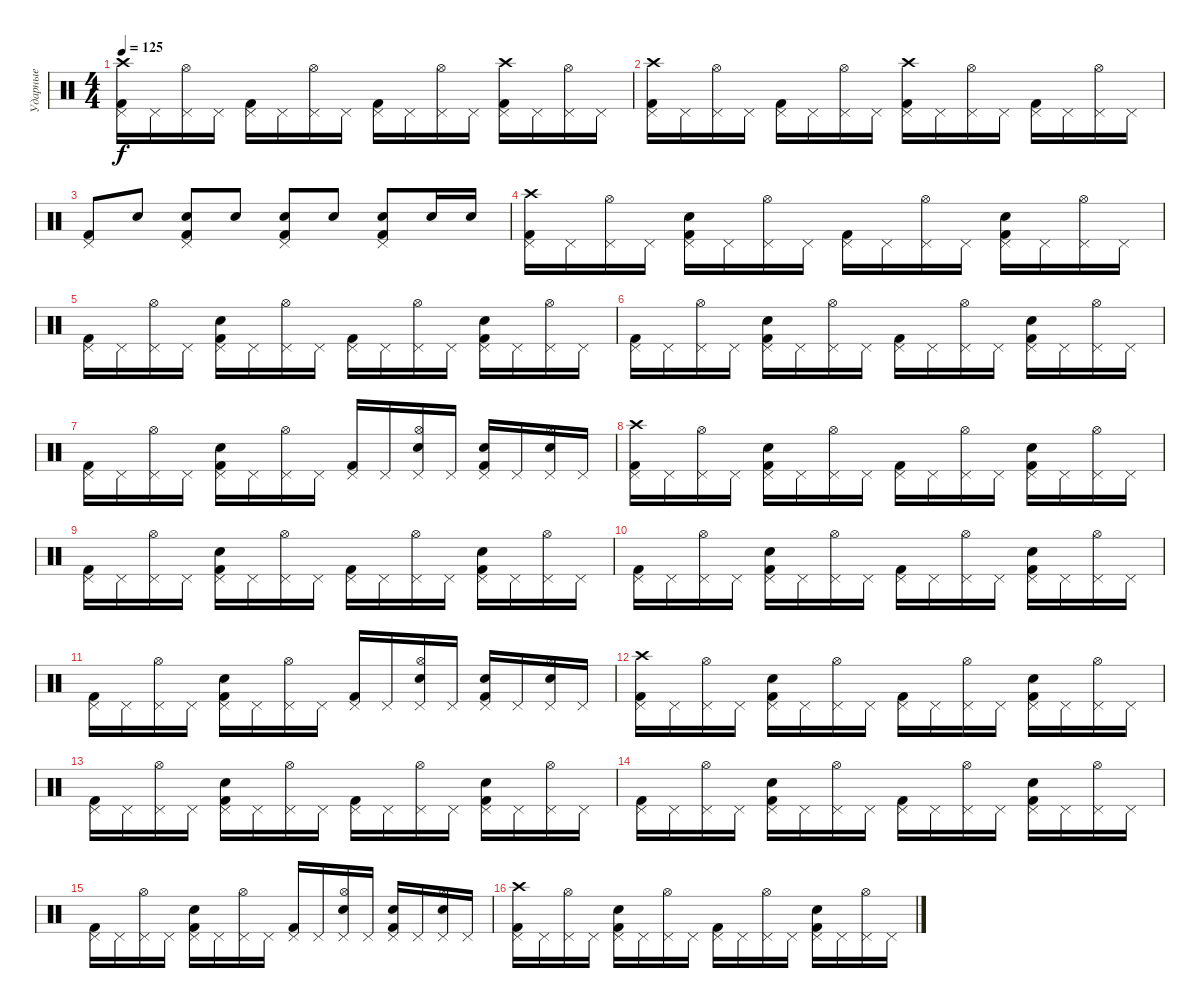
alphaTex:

\track ("Ударные" "Ударные") {instrument percussion}
\staff {score}
\articulation defaults
\ts (4 4)
\tempo 125
\clef neutral
\ks c
("Kick (hit) 2" "Pedal Hi-Hat (hit)" "Crash high (hit)").16{dy f} "Pedal Hi-Hat (hit)".16 ("Pedal Hi-Hat (hit)" "Hi-Hat (open)").16 "Pedal Hi-Hat (hit)".16 ("Kick (hit) 2" "Pedal Hi-Hat (hit)").16 "Pedal Hi-Hat (hit)".16 ("Pedal Hi-Hat (hit)" "Hi-Hat (open)").16 "Pedal Hi-Hat (hit)".16 ("Kick (hit) 2" "Pedal Hi-Hat (hit)").16 "Pedal Hi-Hat (hit)".16 ("Pedal Hi-Hat (hit)" "Hi-Hat (open)").16 "Pedal Hi-Hat (hit)".16 ("Kick (hit) 2" "Pedal Hi-Hat (hit)" "Crash high (hit)").16 "Pedal Hi-Hat (hit)".16 ("Pedal Hi-Hat (hit)" "Hi-Hat (open)").16 "Pedal Hi-Hat (hit)".16 |
("Kick (hit) 2" "Pedal Hi-Hat (hit)" "Crash high (hit)").16 "Pedal Hi-Hat (hit)".16 ("Pedal Hi-Hat (hit)" "Hi-Hat (open)").16 "Pedal Hi-Hat (hit)".16 ("Kick (hit) 2" "Pedal Hi-Hat (hit)").16 "Pedal Hi-Hat (hit)".16 ("Pedal Hi-Hat (hit)" "Hi-Hat (open)").16 "Pedal Hi-Hat (hit)".16 ("Kick (hit) 2" "Pedal Hi-Hat (hit)" "Crash high (hit)").16 "Pedal Hi-Hat (hit)".16 ("Pedal Hi-Hat (hit)" "Hi-Hat (open)").16 "Pedal Hi-Hat (hit)".16 ("Kick (hit) 2" "Pedal Hi-Hat (hit)").16 "Pedal Hi-Hat (hit)".16 ("Pedal Hi-Hat (hit)" "Hi-Hat (open)").16 "Pedal Hi-Hat (hit)".16 |
("Kick (hit) 2" "Pedal Hi-Hat (hit)").8 "Snare (hit) 2".8 ("Kick (hit) 2" "Pedal Hi-Hat (hit)" "Snare (hit) 2").8 "Snare (hit) 2".8 ("Kick (hit) 2" "Pedal Hi-Hat (hit)" "Snare (hit) 2").8 "Snare (hit) 2".8 ("Kick (hit) 2" "Pedal Hi-Hat (hit)" "Snare (hit) 2").8 "Snare (hit) 2".16 "Snare (hit) 2".16 |
("Kick (hit) 2" "Pedal Hi-Hat (hit)" "Crash high (hit)").16 "Pedal Hi-Hat (hit)".16 ("Pedal Hi-Hat (hit)" "Hi-Hat (open)").16 "Pedal Hi-Hat (hit)".16 ("Kick (hit) 2" "Pedal Hi-Hat (hit)" "Snare (hit) 2").16 "Pedal Hi-Hat (hit)".16 ("Pedal Hi-Hat (hit)" "Hi-Hat (open)").16 "Pedal Hi-Hat (hit)".16 ("Kick (hit) 2" "Pedal Hi-Hat (hit)").16 "Pedal Hi-Hat (hit)".16 ("Pedal Hi-Hat (hit)" "Hi-Hat (open)").16 "Pedal Hi-Hat (hit)".16 ("Kick (hit) 2" "Pedal Hi-Hat (hit)" "Snare (hit) 2").16 "Pedal Hi-Hat (hit)".16 ("Pedal Hi-Hat (hit)" "Hi-Hat (open)").16 "Pedal Hi-Hat (hit)".16 |
("Kick (hit) 2" "Pedal Hi-Hat (hit)").16 "Pedal Hi-Hat (hit)".16 ("Pedal Hi-Hat (hit)" "Hi-Hat (open)").16 "Pedal Hi-Hat (hit)".16 ("Kick (hit) 2" "Pedal Hi-Hat (hit)" "Snare (hit) 2").16 "Pedal Hi-Hat (hit)".16 ("Pedal Hi-Hat (hit)" "Hi-Hat (open)").16 "Pedal Hi-Hat (hit)".16 ("Kick (hit) 2" "Pedal Hi-Hat (hit)").16 "Pedal Hi-Hat (hit)".16 ("Pedal Hi-Hat (hit)" "Hi-Hat (open)").16 "Pedal Hi-Hat (hit)".16 ("Kick (hit) 2" "Pedal Hi-Hat (hit)" "Snare (hit) 2").16 "Pedal Hi-Hat (hit)".16 ("Pedal Hi-Hat (hit)" "Hi-Hat (open)").16 "Pedal Hi-Hat (hit)".16 |
("Kick (hit) 2" "Pedal Hi-Hat (hit)").16 "Pedal Hi-Hat (hit)".16 ("Pedal Hi-Hat (hit)" "Hi-Hat (open)").16 "Pedal Hi-Hat (hit)".16 ("Kick (hit) 2" "Pedal Hi-Hat (hit)" "Snare (hit) 2").16 "Pedal Hi-Hat (hit)".16 ("Pedal Hi-Hat (hit)" "Hi-Hat (open)").16 "Pedal Hi-Hat (hit)".16 ("Kick (hit) 2" "Pedal Hi-Hat (hit)").16 "Pedal Hi-Hat (hit)".16 ("Pedal Hi-Hat (hit)" "Hi-Hat (open)").16 "Pedal Hi-Hat (hit)".16 ("Kick (hit) 2" "Pedal Hi-Hat (hit)" "Snare (hit) 2").16 "Pedal Hi-Hat (hit)".16 ("Pedal Hi-Hat (hit)" "Hi-Hat (open)").16 "Pedal Hi-Hat (hit)".16 |
("Kick (hit) 2" "Pedal Hi-Hat (hit)").16 "Pedal Hi-Hat (hit)".16 ("Pedal Hi-Hat (hit)" "Hi-Hat (open)").16 "Pedal Hi-Hat (hit)".16 ("Kick (hit) 2" "Pedal Hi-Hat (hit)" "Snare (hit) 2").16 "Pedal Hi-Hat (hit)".16 ("Pedal Hi-Hat (hit)" "Hi-Hat (open)").16 "Pedal Hi-Hat (hit)".16 ("Kick (hit) 2" "Pedal Hi-Hat (hit)").16 "Pedal Hi-Hat (hit)".16 ("Pedal Hi-Hat (hit)" "Snare (hit) 2" "Hi-Hat (open)").16 "Pedal Hi-Hat (hit)".16 ("Kick (hit) 2" "Pedal Hi-Hat (hit)" "Snare (hit) 2").16 "Pedal Hi-Hat (hit)".16 ("Pedal Hi-Hat (hit)" "Snare (hit) 2" "Hi-Hat (open)").16 "Pedal Hi-Hat (hit)".16 |
("Kick (hit) 2" "Pedal Hi-Hat (hit)" "Crash high (hit)").16 "Pedal Hi-Hat (hit)".16 ("Pedal Hi-Hat (hit)" "Hi-Hat (open)").16 "Pedal Hi-Hat (hit)".16 ("Kick (hit) 2" "Pedal Hi-Hat (hit)" "Snare (hit) 2").16 "Pedal Hi-Hat (hit)".16 ("Pedal Hi-Hat (hit)" "Hi-Hat (open)").16 "Pedal Hi-Hat (hit)".16 ("Kick (hit) 2" "Pedal Hi-Hat (hit)").16 "Pedal Hi-Hat (hit)".16 ("Pedal Hi-Hat (hit)" "Hi-Hat (open)").16 "Pedal Hi-Hat (hit)".16 ("Kick (hit) 2" "Pedal Hi-Hat (hit)" "Snare (hit) 2").16 "Pedal Hi-Hat (hit)".16 ("Pedal Hi-Hat (hit)" "Hi-Hat (open)").16 "Pedal Hi-Hat (hit)".16 |
("Kick (hit) 2" "Pedal Hi-Hat (hit)").16 "Pedal Hi-Hat (hit)".16 ("Pedal Hi-Hat (hit)" "Hi-Hat (open)").16 "Pedal Hi-Hat (hit)".16 ("Kick (hit) 2" "Pedal Hi-Hat (hit)" "Snare (hit) 2").16 "Pedal Hi-Hat (hit)".16 ("Pedal Hi-Hat (hit)" "Hi-Hat (open)").16 "Pedal Hi-Hat (hit)".16 ("Kick (hit) 2" "Pedal Hi-Hat (hit)").16 "Pedal Hi-Hat (hit)".16 ("Pedal Hi-Hat (hit)" "Hi-Hat (open)").16 "Pedal Hi-Hat (hit)".16 ("Kick (hit) 2" "Pedal Hi-Hat (hit)" "Snare (hit) 2").16 "Pedal Hi-Hat (hit)".16 ("Pedal Hi-Hat (hit)" "Hi-Hat (open)").16 "Pedal Hi-Hat (hit)".16 |
("Kick (hit) 2" "Pedal Hi-Hat (hit)").16 "Pedal Hi-Hat (hit)".16 ("Pedal Hi-Hat (hit)" "Hi-Hat (open)").16 "Pedal Hi-Hat (hit)".16 ("Kick (hit) 2" "Pedal Hi-Hat (hit)" "Snare (hit) 2").16 "Pedal Hi-Hat (hit)".16 ("Pedal Hi-Hat (hit)" "Hi-Hat (open)").16 "Pedal Hi-Hat (hit)".16 ("Kick (hit) 2" "Pedal Hi-Hat (hit)").16 "Pedal Hi-Hat (hit)".16 ("Pedal Hi-Hat (hit)" "Hi-Hat (open)").16 "Pedal Hi-Hat (hit)".16 ("Kick (hit) 2" "Pedal Hi-Hat (hit)" "Snare (hit) 2").16 "Pedal Hi-Hat (hit)".16 ("Pedal Hi-Hat (hit)" "Hi-Hat (open)").16 "Pedal Hi-Hat (hit)".16 |
("Kick (hit) 2" "Pedal Hi-Hat (hit)").16 "Pedal Hi-Hat (hit)".16 ("Pedal Hi-Hat (hit)" "Hi-Hat (open)").16 "Pedal Hi-Hat (hit)".16 ("Kick (hit) 2" "Pedal Hi-Hat (hit)" "Snare (hit) 2").16 "Pedal Hi-Hat (hit)".16 ("Pedal Hi-Hat (hit)" "Hi-Hat (open)").16 "Pedal Hi-Hat (hit)".16 ("Kick (hit) 2" "Pedal Hi-Hat (hit)").16 "Pedal Hi-Hat (hit)".16 ("Pedal Hi-Hat (hit)" "Snare (hit) 2" "Hi-Hat (open)").16 "Pedal Hi-Hat (hit)".16 ("Kick (hit) 2" "Pedal Hi-Hat (hit)" "Snare (hit) 2").16 "Pedal Hi-Hat (hit)".16 ("Pedal Hi-Hat (hit)" "Snare (hit) 2" "Hi-Hat (open)").16 "Pedal Hi-Hat (hit)".16 |
("Kick (hit) 2" "Pedal Hi-Hat (hit)" "Crash high (hit)").16 "Pedal Hi-Hat (hit)".16 ("Pedal Hi-Hat (hit)" "Hi-Hat (open)").16 "Pedal Hi-Hat (hit)".16 ("Kick (hit) 2" "Pedal Hi-Hat (hit)" "Snare (hit) 2").16 "Pedal Hi-Hat (hit)".16 ("Pedal Hi-Hat (hit)" "Hi-Hat (open)").16 "Pedal Hi-Hat (hit)".16 ("Kick (hit) 2" "Pedal Hi-Hat (hit)").16 "Pedal Hi-Hat (hit)".16 ("Pedal Hi-Hat (hit)" "Hi-Hat (open)").16 "Pedal Hi-Hat (hit)".16 ("Kick (hit) 2" "Pedal Hi-Hat (hit)" "Snare (hit) 2").16 "Pedal Hi-Hat (hit)".16 ("Pedal Hi-Hat (hit)" "Hi-Hat (open)").16 "Pedal Hi-Hat (hit)".16 |
("Kick (hit) 2" "Pedal Hi-Hat (hit)").16 "Pedal Hi-Hat (hit)".16 ("Pedal Hi-Hat (hit)" "Hi-Hat (open)").16 "Pedal Hi-Hat (hit)".16 ("Kick (hit) 2" "Pedal Hi-Hat (hit)" "Snare (hit) 2").16 "Pedal Hi-Hat (hit)".16 ("Pedal Hi-Hat (hit)" "Hi-Hat (open)").16 "Pedal Hi-Hat (hit)".16 ("Kick (hit) 2" "Pedal Hi-Hat (hit)").16 "Pedal Hi-Hat (hit)".16 ("Pedal Hi-Hat (hit)" "Hi-Hat (open)").16 "Pedal Hi-Hat (hit)".16 ("Kick (hit) 2" "Pedal Hi-Hat (hit)" "Snare (hit) 2").16 "Pedal Hi-Hat (hit)".16 ("Pedal Hi-Hat (hit)" "Hi-Hat (open)").16 "Pedal Hi-Hat (hit)".16 |
("Kick (hit) 2" "Pedal Hi-Hat (hit)").16 "Pedal Hi-Hat (hit)".16 ("Pedal Hi-Hat (hit)" "Hi-Hat (open)").16 "Pedal Hi-Hat (hit)".16 ("Kick (hit) 2" "Pedal Hi-Hat (hit)" "Snare (hit) 2").16 "Pedal Hi-Hat (hit)".16 ("Pedal Hi-Hat (hit)" "Hi-Hat (open)").16 "Pedal Hi-Hat (hit)".16 ("Kick (hit) 2" "Pedal Hi-Hat (hit)").16 "Pedal Hi-Hat (hit)".16 ("Pedal Hi-Hat (hit)" "Hi-Hat (open)").16 "Pedal Hi-Hat (hit)".16 ("Kick (hit) 2" "Pedal Hi-Hat (hit)" "Snare (hit) 2").16 "Pedal Hi-Hat (hit)".16 ("Pedal Hi-Hat (hit)" "Hi-Hat (open)").16 "Pedal Hi-Hat (hit)".16 |
("Kick (hit) 2" "Pedal Hi-Hat (hit)").16 "Pedal Hi-Hat (hit)".16 ("Pedal Hi-Hat (hit)" "Hi-Hat (open)").16 "Pedal Hi-Hat (hit)".16 ("Kick (hit) 2" "Pedal Hi-Hat (hit)" "Snare (hit) 2").16 "Pedal Hi-Hat (hit)".16 ("Pedal Hi-Hat (hit)" "Hi-Hat (open)").16 "Pedal Hi-Hat (hit)".16 ("Kick (hit) 2" "Pedal Hi-Hat (hit)").16 "Pedal Hi-Hat (hit)".16 ("Pedal Hi-Hat (hit)" "Snare (hit) 2" "Hi-Hat (open)").16 "Pedal Hi-Hat (hit)".16 ("Kick (hit) 2" "Pedal Hi-Hat (hit)" "Snare (hit) 2").16 "Pedal Hi-Hat (hit)".16 ("Pedal Hi-Hat (hit)" "Snare (hit) 2" "Hi-Hat (open)").16 "Pedal Hi-Hat (hit)".16 |
("Kick (hit) 2" "Pedal Hi-Hat (hit)" "Crash high (hit)").16 "Pedal Hi-Hat (hit)".16 ("Pedal Hi-Hat (hit)" "Hi-Hat (open)").16 "Pedal Hi-Hat (hit)".16 ("Kick (hit) 2" "Pedal Hi-Hat (hit)" "Snare (hit) 2").16 "Pedal Hi-Hat (hit)".16 ("Pedal Hi-Hat (hit)" "Hi-Hat (open)").16 "Pedal Hi-Hat (hit)".16 ("Kick (hit) 2" "Pedal Hi-Hat (hit)").16 "Pedal Hi-Hat (hit)".16 ("Pedal Hi-Hat (hit)" "Hi-Hat (open)").16 "Pedal Hi-Hat (hit)".16 ("Kick (hit) 2" "Pedal Hi-Hat (hit)" "Snare (hit) 2").16 "Pedal Hi-Hat (hit)".16 ("Pedal Hi-Hat (hit)" "Hi-Hat (open)").16 "Pedal Hi-Hat (hit)".16
